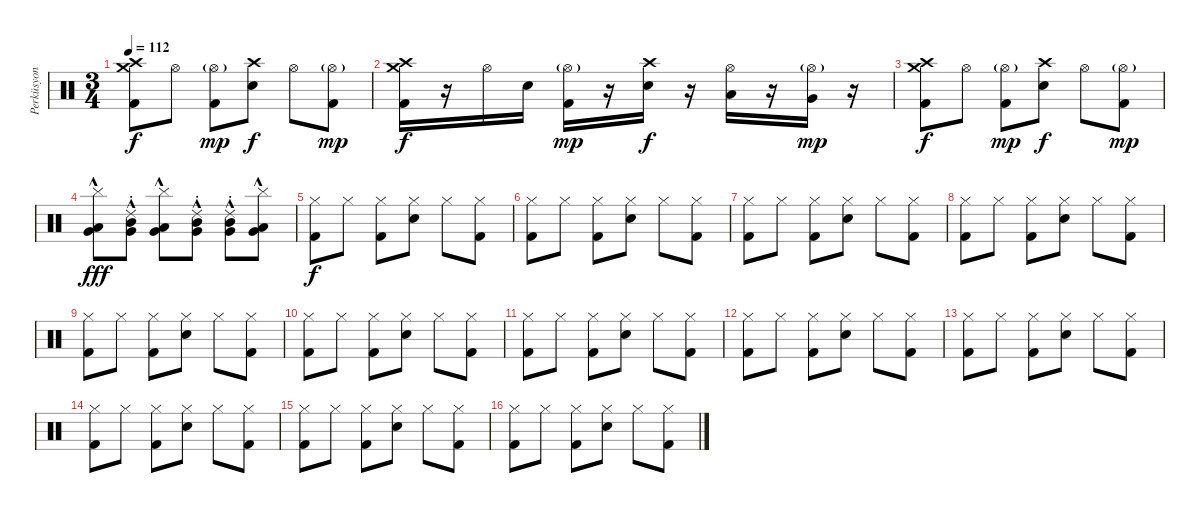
\track ("Perküsyon" "Perküsyon") {instrument percussion}
\staff {score}
\articulation defaults
\ts (3 4)
\tempo 112
\clef neutral
\ks c
("Crash high (hit)" "Crash medium (hit)" "Kick (hit) 2").8{dy f} "Hi-Hat (open)".8 ("Hi-Hat (open)"{g} "Kick (hit) 2").8{dy mp} ("Crash high (hit)" "Electric Snare (hit)").8{dy f} "Hi-Hat (open)".8 ("Hi-Hat (open)"{g} "Kick (hit) 2").8{dy mp} |
("Crash high (hit)" "Crash medium (hit)" "Kick (hit) 2").16{dy f} r.16 "Hi-Hat (open)".16 "Electric Snare (hit)".16 ("Hi-Hat (open)"{g} "Kick (hit) 2").16{dy mp} r.16 ("Crash high (hit)" "Electric Snare (hit)").16{dy f} r.16 ("Hi-Hat (open)" "Low Tom (hit)").16 r.16 ("Hi-Hat (open)"{g} "Very Low Tom (hit)").16{dy mp} r.16 |
("Crash high (hit)" "Crash medium (hit)" "Kick (hit) 2").8{dy f} "Hi-Hat (open)".8 ("Hi-Hat (open)"{g} "Kick (hit) 2").8{dy mp} ("Crash high (hit)" "Electric Snare (hit)").8{dy f} "Hi-Hat (open)".8 ("Hi-Hat (open)"{g} "Kick (hit) 2").8{dy mp} |
("Cymbal (hit)"{hac} "Low Tom (hit)" "Very Low Tom (hit)").8{dy fff} ("Ride (choke) 2"{hac} "Mid Tom (hit)" "Very Low Tom (hit)").8 ("Cymbal (hit)"{hac} "Low Tom (hit)" "Very Low Tom (hit)").8 ("Ride (choke) 2"{hac} "Mid Tom (hit)" "Very Low Tom (hit)").8 ("Ride (choke) 2"{hac} "Mid Tom (hit)" "Very Low Tom (hit)").8 ("Cymbal (hit)"{hac} "Low Tom (hit)" "Very Low Tom (hit)").8 |
("Hi-Hat (closed)" "Kick (hit) 2").8{dy f} "Hi-Hat (closed)".8 ("Hi-Hat (closed)" "Kick (hit) 2").8 ("Hi-Hat (closed)" "Electric Snare (hit)").8 "Hi-Hat (closed)".8 ("Hi-Hat (closed)" "Kick (hit) 2").8 |
("Hi-Hat (closed)" "Kick (hit) 2").8 "Hi-Hat (closed)".8 ("Hi-Hat (closed)" "Kick (hit) 2").8 ("Hi-Hat (closed)" "Electric Snare (hit)").8 "Hi-Hat (closed)".8 ("Hi-Hat (closed)" "Kick (hit) 2").8 |
("Hi-Hat (closed)" "Kick (hit) 2").8 "Hi-Hat (closed)".8 ("Hi-Hat (closed)" "Kick (hit) 2").8 ("Hi-Hat (closed)" "Electric Snare (hit)").8 "Hi-Hat (closed)".8 ("Hi-Hat (closed)" "Kick (hit) 2").8 |
("Hi-Hat (closed)" "Kick (hit) 2").8 "Hi-Hat (closed)".8 ("Hi-Hat (closed)" "Kick (hit) 2").8 ("Hi-Hat (closed)" "Electric Snare (hit)").8 "Hi-Hat (closed)".8 ("Hi-Hat (closed)" "Kick (hit) 2").8 |
("Hi-Hat (closed)" "Kick (hit) 2").8 "Hi-Hat (closed)".8 ("Hi-Hat (closed)" "Kick (hit) 2").8 ("Hi-Hat (closed)" "Electric Snare (hit)").8 "Hi-Hat (closed)".8 ("Hi-Hat (closed)" "Kick (hit) 2").8 |
("Hi-Hat (closed)" "Kick (hit) 2").8 "Hi-Hat (closed)".8 ("Hi-Hat (closed)" "Kick (hit) 2").8 ("Hi-Hat (closed)" "Electric Snare (hit)").8 "Hi-Hat (closed)".8 ("Hi-Hat (closed)" "Kick (hit) 2").8 |
("Hi-Hat (closed)" "Kick (hit) 2").8 "Hi-Hat (closed)".8 ("Hi-Hat (closed)" "Kick (hit) 2").8 ("Hi-Hat (closed)" "Electric Snare (hit)").8 "Hi-Hat (closed)".8 ("Hi-Hat (closed)" "Kick (hit) 2").8 |
("Hi-Hat (closed)" "Kick (hit) 2").8 "Hi-Hat (closed)".8 ("Hi-Hat (closed)" "Kick (hit) 2").8 ("Hi-Hat (closed)" "Electric Snare (hit)").8 "Hi-Hat (closed)".8 ("Hi-Hat (closed)" "Kick (hit) 2").8 |
("Hi-Hat (closed)" "Kick (hit) 2").8 "Hi-Hat (closed)".8 ("Hi-Hat (closed)" "Kick (hit) 2").8 ("Hi-Hat (closed)" "Electric Snare (hit)").8 "Hi-Hat (closed)".8 ("Hi-Hat (closed)" "Kick (hit) 2").8 |
("Hi-Hat (closed)" "Kick (hit) 2").8 "Hi-Hat (closed)".8 ("Hi-Hat (closed)" "Kick (hit) 2").8 ("Hi-Hat (closed)" "Electric Snare (hit)").8 "Hi-Hat (closed)".8 ("Hi-Hat (closed)" "Kick (hit) 2").8 |
("Hi-Hat (closed)" "Kick (hit) 2").8 "Hi-Hat (closed)".8 ("Hi-Hat (closed)" "Kick (hit) 2").8 ("Hi-Hat (closed)" "Electric Snare (hit)").8 "Hi-Hat (closed)".8 ("Hi-Hat (closed)" "Kick (hit) 2").8 |
("Hi-Hat (closed)" "Kick (hit) 2").8 "Hi-Hat (closed)".8 ("Hi-Hat (closed)" "Kick (hit) 2").8 ("Hi-Hat (closed)" "Electric Snare (hit)").8 "Hi-Hat (closed)".8 ("Hi-Hat (closed)" "Kick (hit) 2").8
